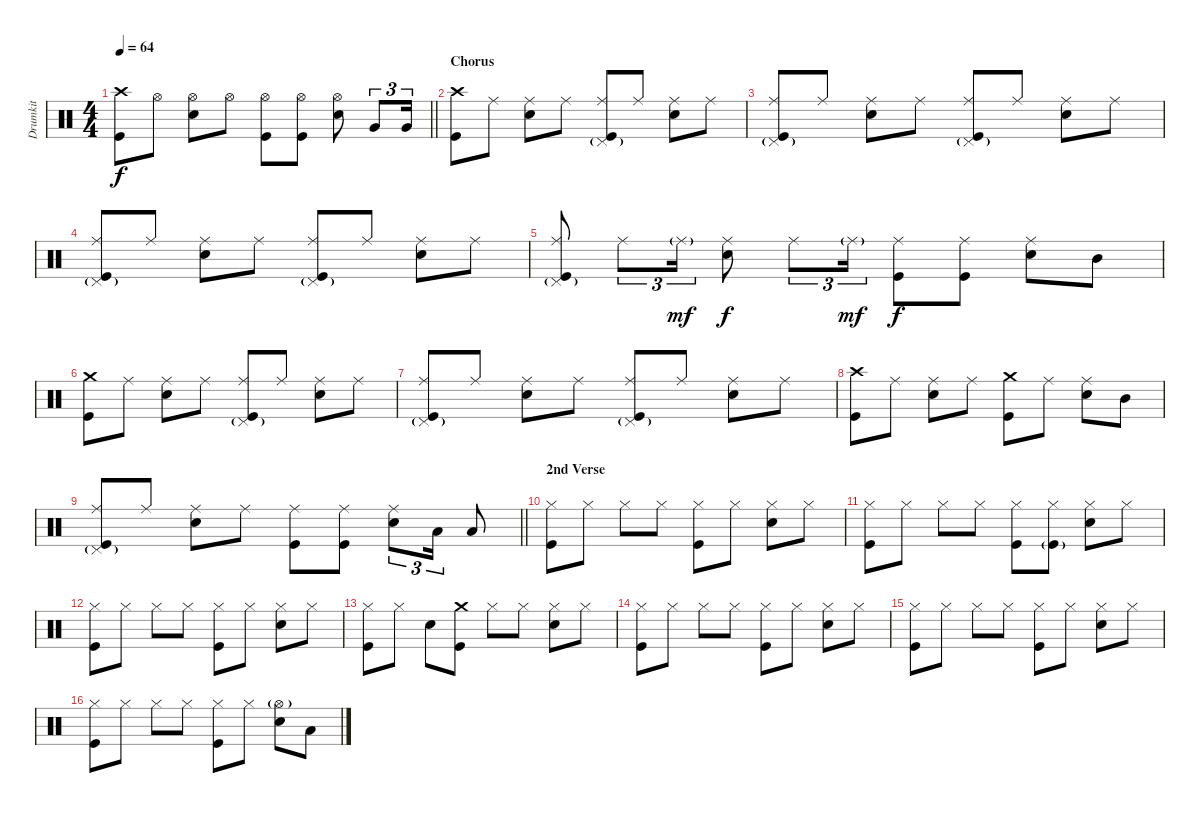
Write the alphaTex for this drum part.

\track ("Drumkit" "Drumkit") {instrument percussion}
\staff {score}
\articulation defaults
\ts (4 4)
\tempo 64
\clef neutral
\barLineRight lightlight
\ks c
("Crash high (hit)" "Kick (hit)").8{dy f} "Hi-Hat (open)".8 ("Hi-Hat (open)" "Snare (hit) 2").8 "Hi-Hat (open)".8 ("Hi-Hat (open)" "Kick (hit)").8 ("Hi-Hat (open)" "Kick (hit)").8 ("Hi-Hat (open)" "Snare (hit) 2").8 "Very Low Tom (hit)".8{tu (3 2)} "Very Low Tom (hit)".16{tu (3 2)} |
\section ("" "Chorus")
("Crash high (hit)" "Kick (hit)").8 "Ride (middle)".8 ("Ride (middle)" "Snare (hit) 2").8 "Ride (middle)".8 ("Ride (middle)" "Pedal Hi-Hat (hit)"{g} "Kick (hit)").8 "Ride (middle)".8 ("Ride (middle)" "Snare (hit) 2").8 "Ride (middle)".8 |
("Ride (middle)" "Pedal Hi-Hat (hit)"{g} "Kick (hit)").8 "Ride (middle)".8 ("Ride (middle)" "Snare (hit) 2").8 "Ride (middle)".8 ("Ride (middle)" "Pedal Hi-Hat (hit)"{g} "Kick (hit)").8 "Ride (middle)".8 ("Ride (middle)" "Snare (hit) 2").8 "Ride (middle)".8 |
("Ride (middle)" "Pedal Hi-Hat (hit)"{g} "Kick (hit)").8 "Ride (middle)".8 ("Ride (middle)" "Snare (hit) 2").8 "Ride (middle)".8 ("Ride (middle)" "Pedal Hi-Hat (hit)"{g} "Kick (hit)").8 "Ride (middle)".8 ("Ride (middle)" "Snare (hit) 2").8 "Ride (middle)".8 |
("Ride (middle)" "Pedal Hi-Hat (hit)"{g} "Kick (hit)").8 "Ride (middle)".8{tu (3 2)} "Ride (middle)"{g}.16{tu (3 2) dy mf} ("Ride (middle)" "Snare (hit) 2").8{dy f} "Ride (middle)".8{tu (3 2)} "Ride (middle)"{g}.16{tu (3 2) dy mf} ("Ride (middle)" "Kick (hit)").8{dy f} ("Ride (middle)" "Kick (hit)").8 ("Ride (middle)" "Snare (hit) 2").8 "Mid Tom (hit)".8 |
("Crash medium (hit)" "Kick (hit)").8 "Ride (middle)".8 ("Ride (middle)" "Snare (hit) 2").8 "Ride (middle)".8 ("Ride (middle)" "Pedal Hi-Hat (hit)"{g} "Kick (hit)").8 "Ride (middle)".8 ("Ride (middle)" "Snare (hit) 2").8 "Ride (middle)".8 |
("Ride (middle)" "Pedal Hi-Hat (hit)"{g} "Kick (hit)").8 "Ride (middle)".8 ("Ride (middle)" "Snare (hit) 2").8 "Ride (middle)".8 ("Ride (middle)" "Pedal Hi-Hat (hit)"{g} "Kick (hit)").8 "Ride (middle)".8 ("Ride (middle)" "Snare (hit) 2").8 "Ride (middle)".8 |
("Crash high (hit)" "Kick (hit)").8 "Ride (middle)".8 ("Ride (middle)" "Snare (hit) 2").8 "Ride (middle)".8 ("Crash medium (hit)" "Kick (hit)").8 "Ride (middle)".8 ("Ride (middle)" "Snare (hit) 2").8 "Mid Tom (hit)".8 |
\barLineRight lightlight
("Ride (middle)" "Pedal Hi-Hat (hit)"{g} "Kick (hit)").8 "Ride (middle)".8 ("Ride (middle)" "Snare (hit) 2").8 "Ride (middle)".8 ("Ride (middle)" "Kick (hit)").8 ("Ride (middle)" "Kick (hit)").8 ("Ride (middle)" "Snare (hit) 2").8{tu (3 2)} "Low Tom (hit)".16{tu (3 2)} "Low Tom (hit)".8 |
\section ("" "2nd Verse")
("Hi-Hat (closed)" "Kick (hit)").8 "Hi-Hat (closed)".8 "Hi-Hat (closed)".8 "Hi-Hat (closed)".8 ("Hi-Hat (closed)" "Kick (hit)").8 "Hi-Hat (closed)".8 ("Hi-Hat (closed)" "Snare (hit) 2").8 "Hi-Hat (closed)".8 |
("Hi-Hat (closed)" "Kick (hit)").8 "Hi-Hat (closed)".8 "Hi-Hat (closed)".8 "Hi-Hat (closed)".8 ("Hi-Hat (closed)" "Kick (hit)").8 ("Hi-Hat (closed)" "Kick (hit)"{g}).8 ("Hi-Hat (closed)" "Snare (hit) 2").8 "Hi-Hat (closed)".8 |
("Hi-Hat (closed)" "Kick (hit)").8 "Hi-Hat (closed)".8 "Hi-Hat (closed)".8 "Hi-Hat (closed)".8 ("Hi-Hat (closed)" "Kick (hit)").8 "Hi-Hat (closed)".8 ("Hi-Hat (closed)" "Snare (hit) 2").8 "Hi-Hat (closed)".8 |
("Hi-Hat (closed)" "Kick (hit)").8 "Hi-Hat (closed)".8 "Snare (hit) 2".8 ("Crash medium (hit)" "Kick (hit)").8 "Hi-Hat (closed)".8 "Hi-Hat (closed)".8 ("Hi-Hat (closed)" "Snare (hit) 2").8 "Hi-Hat (closed)".8 |
("Hi-Hat (closed)" "Kick (hit)").8 "Hi-Hat (closed)".8 "Hi-Hat (closed)".8 "Hi-Hat (closed)".8 ("Hi-Hat (closed)" "Kick (hit)").8 "Hi-Hat (closed)".8 ("Hi-Hat (closed)" "Snare (hit) 2").8 "Hi-Hat (closed)".8 |
("Hi-Hat (closed)" "Kick (hit)").8 "Hi-Hat (closed)".8 "Hi-Hat (closed)".8 "Hi-Hat (closed)".8 ("Hi-Hat (closed)" "Kick (hit)").8 "Hi-Hat (closed)".8 ("Hi-Hat (closed)" "Snare (hit) 2").8 "Hi-Hat (closed)".8 |
("Hi-Hat (closed)" "Kick (hit)").8 "Hi-Hat (closed)".8 "Hi-Hat (closed)".8 "Hi-Hat (closed)".8 ("Hi-Hat (closed)" "Kick (hit)").8 "Hi-Hat (closed)".8 ("Hi-Hat (open)"{g} "Snare (hit) 2").8 "Low Tom (hit)".8
